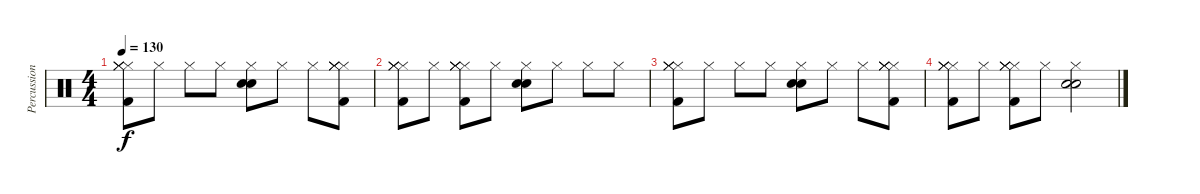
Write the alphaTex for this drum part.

\track ("Percussion" "Percussion") {instrument percussion}
\staff {score}
\articulation defaults
\ts (4 4)
\tempo 130
\clef neutral
\ks c
("Hi-Hat (closed)" "Hi-Hat (closed)" "Kick (hit) 2" "Hi-Hat (closed)" "Hi-Hat (closed)").8{dy f} "Hi-Hat (closed)".8 "Hi-Hat (closed)".8 "Hi-Hat (closed)".8 ("Hi-Hat (closed)" "Snare (hit) 2" "Snare (hit) 2").8 "Hi-Hat (closed)".8 "Hi-Hat (closed)".8 ("Hi-Hat (closed)" "Kick (hit) 2" "Hi-Hat (closed)" "Hi-Hat (closed)" "Hi-Hat (closed)").8 |
("Hi-Hat (closed)" "Kick (hit) 2" "Hi-Hat (closed)" "Hi-Hat (closed)" "Hi-Hat (closed)").8 "Hi-Hat (closed)".8 ("Hi-Hat (closed)" "Kick (hit) 2" "Hi-Hat (closed)" "Hi-Hat (closed)" "Hi-Hat (closed)").8 "Hi-Hat (closed)".8 ("Hi-Hat (closed)" "Snare (hit) 2" "Snare (hit) 2").8 "Hi-Hat (closed)".8 "Hi-Hat (closed)".8 "Hi-Hat (closed)".8 |
("Hi-Hat (closed)" "Hi-Hat (closed)" "Kick (hit) 2" "Hi-Hat (closed)" "Hi-Hat (closed)").8 "Hi-Hat (closed)".8 "Hi-Hat (closed)".8 "Hi-Hat (closed)".8 ("Hi-Hat (closed)" "Snare (hit) 2" "Snare (hit) 2").8 "Hi-Hat (closed)".8 "Hi-Hat (closed)".8 ("Hi-Hat (closed)" "Kick (hit) 2" "Hi-Hat (closed)" "Hi-Hat (closed)" "Hi-Hat (closed)").8 |
("Hi-Hat (closed)" "Kick (hit) 2" "Hi-Hat (closed)" "Hi-Hat (closed)" "Hi-Hat (closed)").8 "Hi-Hat (closed)".8 ("Hi-Hat (closed)" "Kick (hit) 2" "Hi-Hat (closed)" "Hi-Hat (closed)" "Hi-Hat (closed)").8 "Hi-Hat (closed)".8 ("Hi-Hat (closed)" "Snare (hit) 2" "Snare (hit) 2").2
